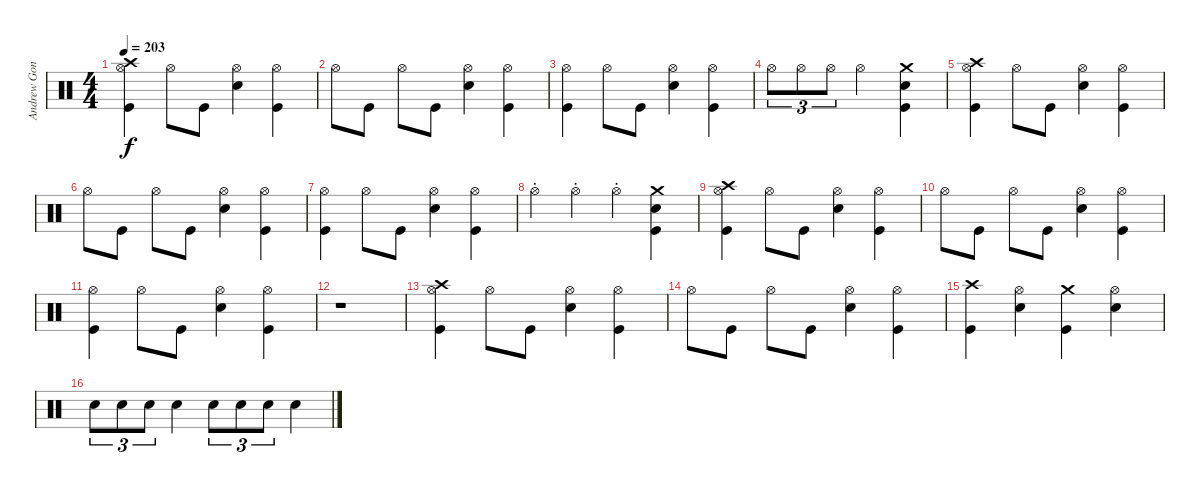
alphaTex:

\track ("Andrew Gonzales" "Andrew Gon") {instrument percussion}
\staff {score}
\articulation defaults
\ts (4 4)
\tempo 203
\clef neutral
\ks c
("Crash high (hit)" "Hi-Hat (open)" "Kick (hit)").4{dy f} "Hi-Hat (open)".8 "Kick (hit)".8 ("Hi-Hat (open)" "Electric Snare (hit)").4 ("Hi-Hat (open)" "Kick (hit)").4 |
"Hi-Hat (open)".8 "Kick (hit)".8 "Hi-Hat (open)".8 "Kick (hit)".8 ("Hi-Hat (open)" "Electric Snare (hit)").4 ("Hi-Hat (open)" "Kick (hit)").4 |
("Hi-Hat (open)" "Kick (hit)").4 "Hi-Hat (open)".8 "Kick (hit)".8 ("Hi-Hat (open)" "Electric Snare (hit)").4 ("Hi-Hat (open)" "Kick (hit)").4 |
"Hi-Hat (open)".8{tu (3 2)} "Hi-Hat (open)".8{tu (3 2)} "Hi-Hat (open)".8{tu (3 2)} "Hi-Hat (open)".2 ("Crash medium (hit)" "Electric Snare (hit)" "Kick (hit)").4 |
("Crash high (hit)" "Hi-Hat (open)" "Kick (hit)").4 "Hi-Hat (open)".8 "Kick (hit)".8 ("Hi-Hat (open)" "Electric Snare (hit)").4 ("Hi-Hat (open)" "Kick (hit)").4 |
"Hi-Hat (open)".8 "Kick (hit)".8 "Hi-Hat (open)".8 "Kick (hit)".8 ("Hi-Hat (open)" "Electric Snare (hit)").4 ("Hi-Hat (open)" "Kick (hit)").4 |
("Hi-Hat (open)" "Kick (hit)").4 "Hi-Hat (open)".8 "Kick (hit)".8 ("Hi-Hat (open)" "Electric Snare (hit)").4 ("Hi-Hat (open)" "Kick (hit)").4 |
"Hi-Hat (open)"{st}.4 "Hi-Hat (open)"{st}.4 "Hi-Hat (open)"{st}.4 ("Crash medium (hit)" "Electric Snare (hit)" "Kick (hit)").4 |
("Crash high (hit)" "Hi-Hat (open)" "Kick (hit)").4 "Hi-Hat (open)".8 "Kick (hit)".8 ("Hi-Hat (open)" "Electric Snare (hit)").4 ("Hi-Hat (open)" "Kick (hit)").4 |
"Hi-Hat (open)".8 "Kick (hit)".8 "Hi-Hat (open)".8 "Kick (hit)".8 ("Hi-Hat (open)" "Electric Snare (hit)").4 ("Hi-Hat (open)" "Kick (hit)").4 |
("Hi-Hat (open)" "Kick (hit)").4 "Hi-Hat (open)".8 "Kick (hit)".8 ("Hi-Hat (open)" "Electric Snare (hit)").4 ("Hi-Hat (open)" "Kick (hit)").4 |
r.1 |
("Crash high (hit)" "Hi-Hat (open)" "Kick (hit)").4 "Hi-Hat (open)".8 "Kick (hit)".8 ("Hi-Hat (open)" "Electric Snare (hit)").4 ("Hi-Hat (open)" "Kick (hit)").4 |
"Hi-Hat (open)".8 "Kick (hit)".8 "Hi-Hat (open)".8 "Kick (hit)".8 ("Hi-Hat (open)" "Electric Snare (hit)").4 ("Hi-Hat (open)" "Kick (hit)").4 |
("Crash high (hit)" "Kick (hit)").4 ("Hi-Hat (open)" "Electric Snare (hit)").4 ("Crash medium (hit)" "Kick (hit)").4 ("Hi-Hat (open)" "Electric Snare (hit)").4 |
"Electric Snare (hit)".8{tu (3 2)} "Electric Snare (hit)".8{tu (3 2)} "Electric Snare (hit)".8{tu (3 2)} "Electric Snare (hit)".4 "Electric Snare (hit)".8{tu (3 2)} "Electric Snare (hit)".8{tu (3 2)} "Electric Snare (hit)".8{tu (3 2)} "Electric Snare (hit)".4
